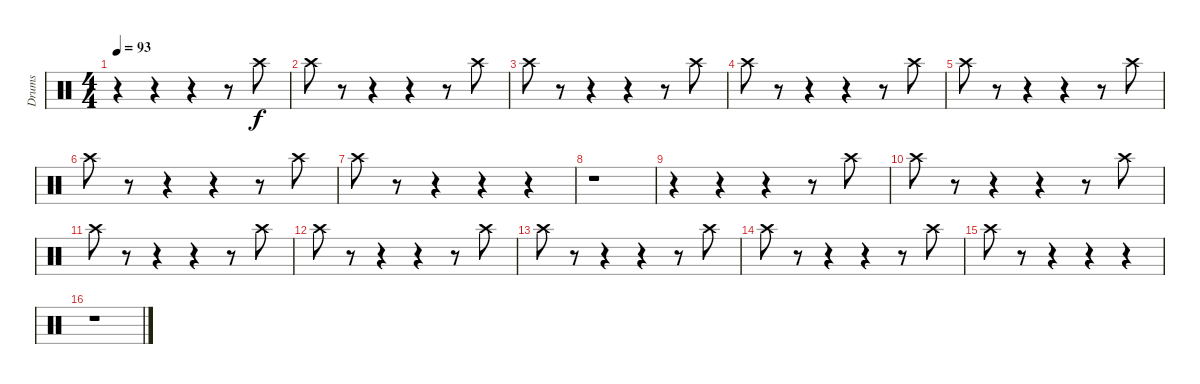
\track ("Drums" "Drums") {instrument percussion}
\staff {score}
\articulation defaults
\ts (4 4)
\tempo 93
\clef neutral
\ks c
r.4{dy f} r.4 r.4 r.8 "Crash high (hit)".8 |
"Crash high (hit)".8 r.8 r.4 r.4 r.8 "Crash high (hit)".8 |
"Crash high (hit)".8 r.8 r.4 r.4 r.8 "Crash high (hit)".8 |
"Crash high (hit)".8 r.8 r.4 r.4 r.8 "Crash high (hit)".8 |
"Crash high (hit)".8 r.8 r.4 r.4 r.8 "Crash high (hit)".8 |
"Crash high (hit)".8 r.8 r.4 r.4 r.8 "Crash high (hit)".8 |
"Crash high (hit)".8 r.8 r.4 r.4 r.4 |
r.1 |
r.4 r.4 r.4 r.8 "Crash high (hit)".8 |
"Crash high (hit)".8 r.8 r.4 r.4 r.8 "Crash high (hit)".8 |
"Crash high (hit)".8 r.8 r.4 r.4 r.8 "Crash high (hit)".8 |
"Crash high (hit)".8 r.8 r.4 r.4 r.8 "Crash high (hit)".8 |
"Crash high (hit)".8 r.8 r.4 r.4 r.8 "Crash high (hit)".8 |
"Crash high (hit)".8 r.8 r.4 r.4 r.8 "Crash high (hit)".8 |
"Crash high (hit)".8 r.8 r.4 r.4 r.4 |
r.1
